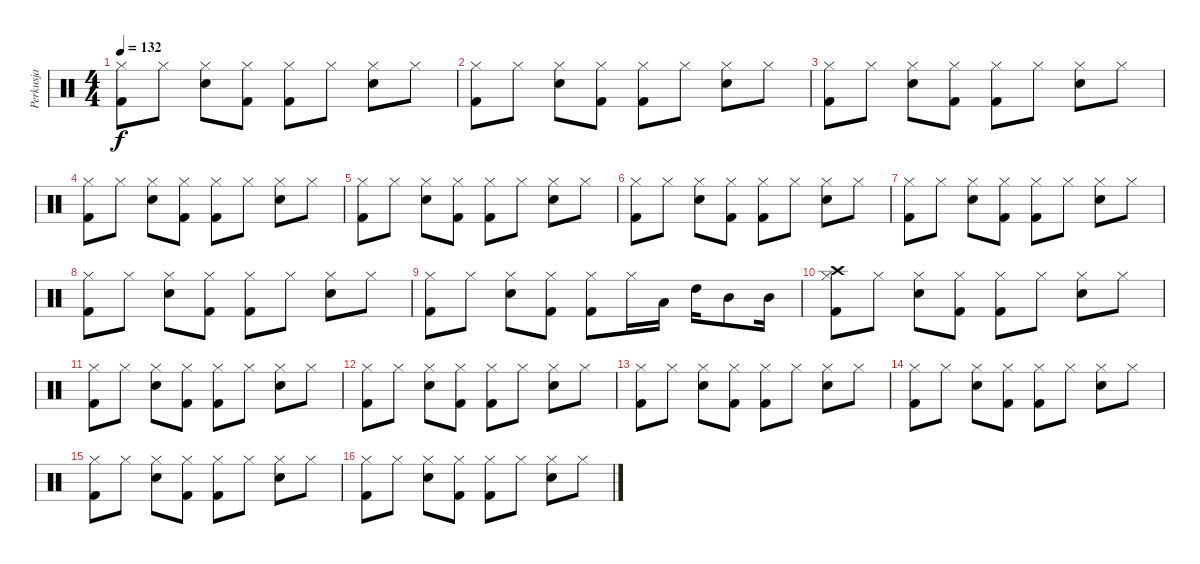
\track ("Perkusja" "Perkusja") {instrument percussion}
\staff {score}
\articulation defaults
\ts (4 4)
\tempo 132
\clef neutral
\ks c
("Kick (hit) 2" "Hi-Hat (closed)").8{dy f} "Hi-Hat (closed)".8 ("Snare (hit) 2" "Hi-Hat (closed)").8 ("Kick (hit) 2" "Hi-Hat (closed)").8 ("Kick (hit) 2" "Hi-Hat (closed)").8 "Hi-Hat (closed)".8 ("Snare (hit) 2" "Hi-Hat (closed)").8 "Hi-Hat (closed)".8 |
("Kick (hit) 2" "Hi-Hat (closed)").8 "Hi-Hat (closed)".8 ("Snare (hit) 2" "Hi-Hat (closed)").8 ("Kick (hit) 2" "Hi-Hat (closed)").8 ("Kick (hit) 2" "Hi-Hat (closed)").8 "Hi-Hat (closed)".8 ("Snare (hit) 2" "Hi-Hat (closed)").8 "Hi-Hat (closed)".8 |
("Kick (hit) 2" "Hi-Hat (closed)").8 "Hi-Hat (closed)".8 ("Snare (hit) 2" "Hi-Hat (closed)").8 ("Kick (hit) 2" "Hi-Hat (closed)").8 ("Kick (hit) 2" "Hi-Hat (closed)").8 "Hi-Hat (closed)".8 ("Snare (hit) 2" "Hi-Hat (closed)").8 "Hi-Hat (closed)".8 |
("Kick (hit) 2" "Hi-Hat (closed)").8 "Hi-Hat (closed)".8 ("Snare (hit) 2" "Hi-Hat (closed)").8 ("Kick (hit) 2" "Hi-Hat (closed)").8 ("Kick (hit) 2" "Hi-Hat (closed)").8 "Hi-Hat (closed)".8 ("Snare (hit) 2" "Hi-Hat (closed)").8 "Hi-Hat (closed)".8 |
("Kick (hit) 2" "Hi-Hat (closed)").8 "Hi-Hat (closed)".8 ("Snare (hit) 2" "Hi-Hat (closed)").8 ("Kick (hit) 2" "Hi-Hat (closed)").8 ("Kick (hit) 2" "Hi-Hat (closed)").8 "Hi-Hat (closed)".8 ("Snare (hit) 2" "Hi-Hat (closed)").8 "Hi-Hat (closed)".8 |
("Kick (hit) 2" "Hi-Hat (closed)").8 "Hi-Hat (closed)".8 ("Snare (hit) 2" "Hi-Hat (closed)").8 ("Kick (hit) 2" "Hi-Hat (closed)").8 ("Kick (hit) 2" "Hi-Hat (closed)").8 "Hi-Hat (closed)".8 ("Snare (hit) 2" "Hi-Hat (closed)").8 "Hi-Hat (closed)".8 |
("Kick (hit) 2" "Hi-Hat (closed)").8 "Hi-Hat (closed)".8 ("Snare (hit) 2" "Hi-Hat (closed)").8 ("Kick (hit) 2" "Hi-Hat (closed)").8 ("Kick (hit) 2" "Hi-Hat (closed)").8 "Hi-Hat (closed)".8 ("Snare (hit) 2" "Hi-Hat (closed)").8 "Hi-Hat (closed)".8 |
("Kick (hit) 2" "Hi-Hat (closed)").8 "Hi-Hat (closed)".8 ("Snare (hit) 2" "Hi-Hat (closed)").8 ("Kick (hit) 2" "Hi-Hat (closed)").8 ("Kick (hit) 2" "Hi-Hat (closed)").8 "Hi-Hat (closed)".8 ("Snare (hit) 2" "Hi-Hat (closed)").8 "Hi-Hat (closed)".8 |
("Kick (hit) 2" "Hi-Hat (closed)").8 "Hi-Hat (closed)".8 ("Snare (hit) 2" "Hi-Hat (closed)").8 ("Kick (hit) 2" "Hi-Hat (closed)").8 ("Kick (hit) 2" "Hi-Hat (closed)").8 "Hi-Hat (closed)".16 "Low Tom (hit)".16 "High Tom (hit)".16 "Mid Tom (hit)".8 "Mid Tom (hit)".16 |
("Kick (hit) 2" "Crash high (hit)" "Hi-Hat (closed)").8 "Hi-Hat (closed)".8 ("Snare (hit) 2" "Hi-Hat (closed)").8 ("Kick (hit) 2" "Hi-Hat (closed)").8 ("Kick (hit) 2" "Hi-Hat (closed)").8 "Hi-Hat (closed)".8 ("Snare (hit) 2" "Hi-Hat (closed)").8 "Hi-Hat (closed)".8 |
("Kick (hit) 2" "Hi-Hat (closed)").8 "Hi-Hat (closed)".8 ("Snare (hit) 2" "Hi-Hat (closed)").8 ("Kick (hit) 2" "Hi-Hat (closed)").8 ("Kick (hit) 2" "Hi-Hat (closed)").8 "Hi-Hat (closed)".8 ("Snare (hit) 2" "Hi-Hat (closed)").8 "Hi-Hat (closed)".8 |
("Kick (hit) 2" "Hi-Hat (closed)").8 "Hi-Hat (closed)".8 ("Snare (hit) 2" "Hi-Hat (closed)").8 ("Kick (hit) 2" "Hi-Hat (closed)").8 ("Kick (hit) 2" "Hi-Hat (closed)").8 "Hi-Hat (closed)".8 ("Snare (hit) 2" "Hi-Hat (closed)").8 "Hi-Hat (closed)".8 |
("Kick (hit) 2" "Hi-Hat (closed)").8 "Hi-Hat (closed)".8 ("Snare (hit) 2" "Hi-Hat (closed)").8 ("Kick (hit) 2" "Hi-Hat (closed)").8 ("Kick (hit) 2" "Hi-Hat (closed)").8 "Hi-Hat (closed)".8 ("Snare (hit) 2" "Hi-Hat (closed)").8 "Hi-Hat (closed)".8 |
("Kick (hit) 2" "Hi-Hat (closed)").8 "Hi-Hat (closed)".8 ("Snare (hit) 2" "Hi-Hat (closed)").8 ("Kick (hit) 2" "Hi-Hat (closed)").8 ("Kick (hit) 2" "Hi-Hat (closed)").8 "Hi-Hat (closed)".8 ("Snare (hit) 2" "Hi-Hat (closed)").8 "Hi-Hat (closed)".8 |
("Kick (hit) 2" "Hi-Hat (closed)").8 "Hi-Hat (closed)".8 ("Snare (hit) 2" "Hi-Hat (closed)").8 ("Kick (hit) 2" "Hi-Hat (closed)").8 ("Kick (hit) 2" "Hi-Hat (closed)").8 "Hi-Hat (closed)".8 ("Snare (hit) 2" "Hi-Hat (closed)").8 "Hi-Hat (closed)".8 |
("Kick (hit) 2" "Hi-Hat (closed)").8 "Hi-Hat (closed)".8 ("Snare (hit) 2" "Hi-Hat (closed)").8 ("Kick (hit) 2" "Hi-Hat (closed)").8 ("Kick (hit) 2" "Hi-Hat (closed)").8 "Hi-Hat (closed)".8 ("Snare (hit) 2" "Hi-Hat (closed)").8 "Hi-Hat (closed)".8
